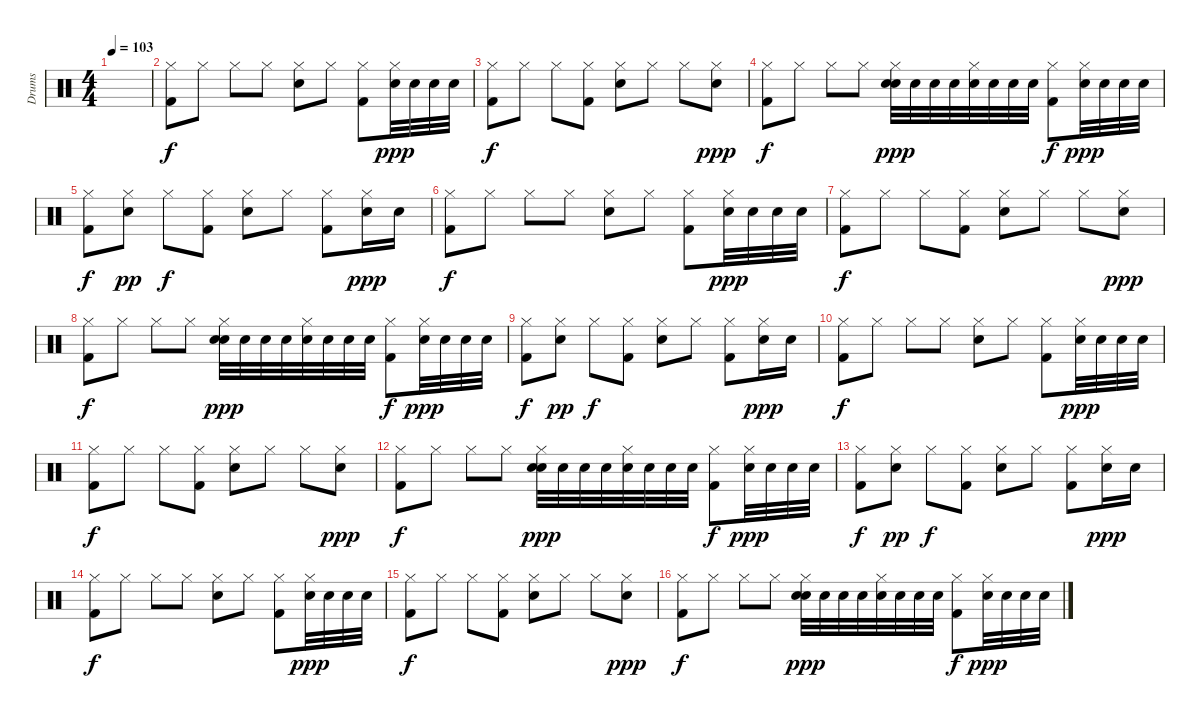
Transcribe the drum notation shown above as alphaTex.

\track ("Drums" "Drums") {instrument percussion}
\staff {score}
\articulation defaults
\ts (4 4)
\tempo 103
\clef neutral
\ks c
|
("Kick (hit) 2" "Hi-Hat (closed)").8 "Hi-Hat (closed)".8 "Hi-Hat (closed)".8 "Hi-Hat (closed)".8 ("Hi-Hat (closed)" "Electric Snare (hit)").8 "Hi-Hat (closed)".8 ("Hi-Hat (closed)" "Kick (hit) 2").8 ("Hi-Hat (closed)" "Snare (hit) 2").32{dy ppp} "Snare (hit) 2".32 "Snare (hit) 2".32 "Snare (hit) 2".32 |
("Kick (hit) 2" "Hi-Hat (closed)").8{dy f} "Hi-Hat (closed)".8 "Hi-Hat (closed)".8 ("Hi-Hat (closed)" "Kick (hit) 2").8 ("Hi-Hat (closed)" "Electric Snare (hit)").8 "Hi-Hat (closed)".8 "Hi-Hat (closed)".8 ("Hi-Hat (closed)" "Snare (hit) 2").8{dy ppp} |
("Kick (hit) 2" "Hi-Hat (closed)").8{dy f} "Hi-Hat (closed)".8 "Hi-Hat (closed)".8 "Hi-Hat (closed)".8 ("Hi-Hat (closed)" "Electric Snare (hit)" "Snare (hit) 2").32{dy ppp} "Snare (hit) 2".32 "Snare (hit) 2".32 "Snare (hit) 2".32 ("Hi-Hat (closed)" "Snare (hit) 2").32 "Snare (hit) 2".32 "Snare (hit) 2".32 "Snare (hit) 2".32 ("Hi-Hat (closed)" "Kick (hit) 2").8{dy f} ("Hi-Hat (closed)" "Snare (hit) 2").32{dy ppp} "Snare (hit) 2".32 "Snare (hit) 2".32 "Snare (hit) 2".32 |
("Kick (hit) 2" "Hi-Hat (closed)").8{dy f} ("Hi-Hat (closed)" "Snare (hit) 2").8{dy pp} "Hi-Hat (closed)".8{dy f} ("Hi-Hat (closed)" "Kick (hit) 2").8 ("Hi-Hat (closed)" "Electric Snare (hit)").8 "Hi-Hat (closed)".8 ("Hi-Hat (closed)" "Kick (hit) 2").8 ("Hi-Hat (closed)" "Snare (hit) 2").16{dy ppp} "Snare (hit) 2".16 |
("Kick (hit) 2" "Hi-Hat (closed)").8{dy f} "Hi-Hat (closed)".8 "Hi-Hat (closed)".8 "Hi-Hat (closed)".8 ("Hi-Hat (closed)" "Electric Snare (hit)").8 "Hi-Hat (closed)".8 ("Hi-Hat (closed)" "Kick (hit) 2").8 ("Hi-Hat (closed)" "Snare (hit) 2").32{dy ppp} "Snare (hit) 2".32 "Snare (hit) 2".32 "Snare (hit) 2".32 |
("Kick (hit) 2" "Hi-Hat (closed)").8{dy f} "Hi-Hat (closed)".8 "Hi-Hat (closed)".8 ("Hi-Hat (closed)" "Kick (hit) 2").8 ("Hi-Hat (closed)" "Electric Snare (hit)").8 "Hi-Hat (closed)".8 "Hi-Hat (closed)".8 ("Hi-Hat (closed)" "Snare (hit) 2").8{dy ppp} |
("Kick (hit) 2" "Hi-Hat (closed)").8{dy f} "Hi-Hat (closed)".8 "Hi-Hat (closed)".8 "Hi-Hat (closed)".8 ("Hi-Hat (closed)" "Electric Snare (hit)" "Snare (hit) 2").32{dy ppp} "Snare (hit) 2".32 "Snare (hit) 2".32 "Snare (hit) 2".32 ("Hi-Hat (closed)" "Snare (hit) 2").32 "Snare (hit) 2".32 "Snare (hit) 2".32 "Snare (hit) 2".32 ("Hi-Hat (closed)" "Kick (hit) 2").8{dy f} ("Hi-Hat (closed)" "Snare (hit) 2").32{dy ppp} "Snare (hit) 2".32 "Snare (hit) 2".32 "Snare (hit) 2".32 |
("Kick (hit) 2" "Hi-Hat (closed)").8{dy f} ("Hi-Hat (closed)" "Snare (hit) 2").8{dy pp} "Hi-Hat (closed)".8{dy f} ("Hi-Hat (closed)" "Kick (hit) 2").8 ("Hi-Hat (closed)" "Electric Snare (hit)").8 "Hi-Hat (closed)".8 ("Hi-Hat (closed)" "Kick (hit) 2").8 ("Hi-Hat (closed)" "Snare (hit) 2").16{dy ppp} "Snare (hit) 2".16 |
("Kick (hit) 2" "Hi-Hat (closed)").8{dy f volume 12} "Hi-Hat (closed)".8 "Hi-Hat (closed)".8 "Hi-Hat (closed)".8 ("Hi-Hat (closed)" "Electric Snare (hit)").8 "Hi-Hat (closed)".8 ("Hi-Hat (closed)" "Kick (hit) 2").8 ("Hi-Hat (closed)" "Snare (hit) 2").32{dy ppp} "Snare (hit) 2".32 "Snare (hit) 2".32 "Snare (hit) 2".32 |
("Kick (hit) 2" "Hi-Hat (closed)").8{dy f} "Hi-Hat (closed)".8 "Hi-Hat (closed)".8 ("Hi-Hat (closed)" "Kick (hit) 2").8 ("Hi-Hat (closed)" "Electric Snare (hit)").8 "Hi-Hat (closed)".8 "Hi-Hat (closed)".8 ("Hi-Hat (closed)" "Snare (hit) 2").8{dy ppp} |
("Kick (hit) 2" "Hi-Hat (closed)").8{dy f} "Hi-Hat (closed)".8 "Hi-Hat (closed)".8 "Hi-Hat (closed)".8 ("Hi-Hat (closed)" "Electric Snare (hit)" "Snare (hit) 2").32{dy ppp} "Snare (hit) 2".32 "Snare (hit) 2".32 "Snare (hit) 2".32 ("Hi-Hat (closed)" "Snare (hit) 2").32 "Snare (hit) 2".32 "Snare (hit) 2".32 "Snare (hit) 2".32 ("Hi-Hat (closed)" "Kick (hit) 2").8{dy f} ("Hi-Hat (closed)" "Snare (hit) 2").32{dy ppp} "Snare (hit) 2".32 "Snare (hit) 2".32 "Snare (hit) 2".32 |
("Kick (hit) 2" "Hi-Hat (closed)").8{dy f volume 8} ("Hi-Hat (closed)" "Snare (hit) 2").8{dy pp} "Hi-Hat (closed)".8{dy f} ("Hi-Hat (closed)" "Kick (hit) 2").8 ("Hi-Hat (closed)" "Electric Snare (hit)").8 "Hi-Hat (closed)".8 ("Hi-Hat (closed)" "Kick (hit) 2").8 ("Hi-Hat (closed)" "Snare (hit) 2").16{dy ppp} "Snare (hit) 2".16 |
("Kick (hit) 2" "Hi-Hat (closed)").8{dy f} "Hi-Hat (closed)".8 "Hi-Hat (closed)".8 "Hi-Hat (closed)".8 ("Hi-Hat (closed)" "Electric Snare (hit)").8 "Hi-Hat (closed)".8 ("Hi-Hat (closed)" "Kick (hit) 2").8 ("Hi-Hat (closed)" "Snare (hit) 2").32{dy ppp} "Snare (hit) 2".32 "Snare (hit) 2".32 "Snare (hit) 2".32 |
("Kick (hit) 2" "Hi-Hat (closed)").8{dy f} "Hi-Hat (closed)".8 "Hi-Hat (closed)".8 ("Hi-Hat (closed)" "Kick (hit) 2").8 ("Hi-Hat (closed)" "Electric Snare (hit)").8 "Hi-Hat (closed)".8 "Hi-Hat (closed)".8 ("Hi-Hat (closed)" "Snare (hit) 2").8{dy ppp} |
("Kick (hit) 2" "Hi-Hat (closed)").8{dy f volume 4} "Hi-Hat (closed)".8 "Hi-Hat (closed)".8 "Hi-Hat (closed)".8 ("Hi-Hat (closed)" "Electric Snare (hit)" "Snare (hit) 2").32{dy ppp} "Snare (hit) 2".32 "Snare (hit) 2".32 "Snare (hit) 2".32 ("Hi-Hat (closed)" "Snare (hit) 2").32 "Snare (hit) 2".32 "Snare (hit) 2".32 "Snare (hit) 2".32 ("Hi-Hat (closed)" "Kick (hit) 2").8{dy f} ("Hi-Hat (closed)" "Snare (hit) 2").32{dy ppp} "Snare (hit) 2".32 "Snare (hit) 2".32 "Snare (hit) 2".32
